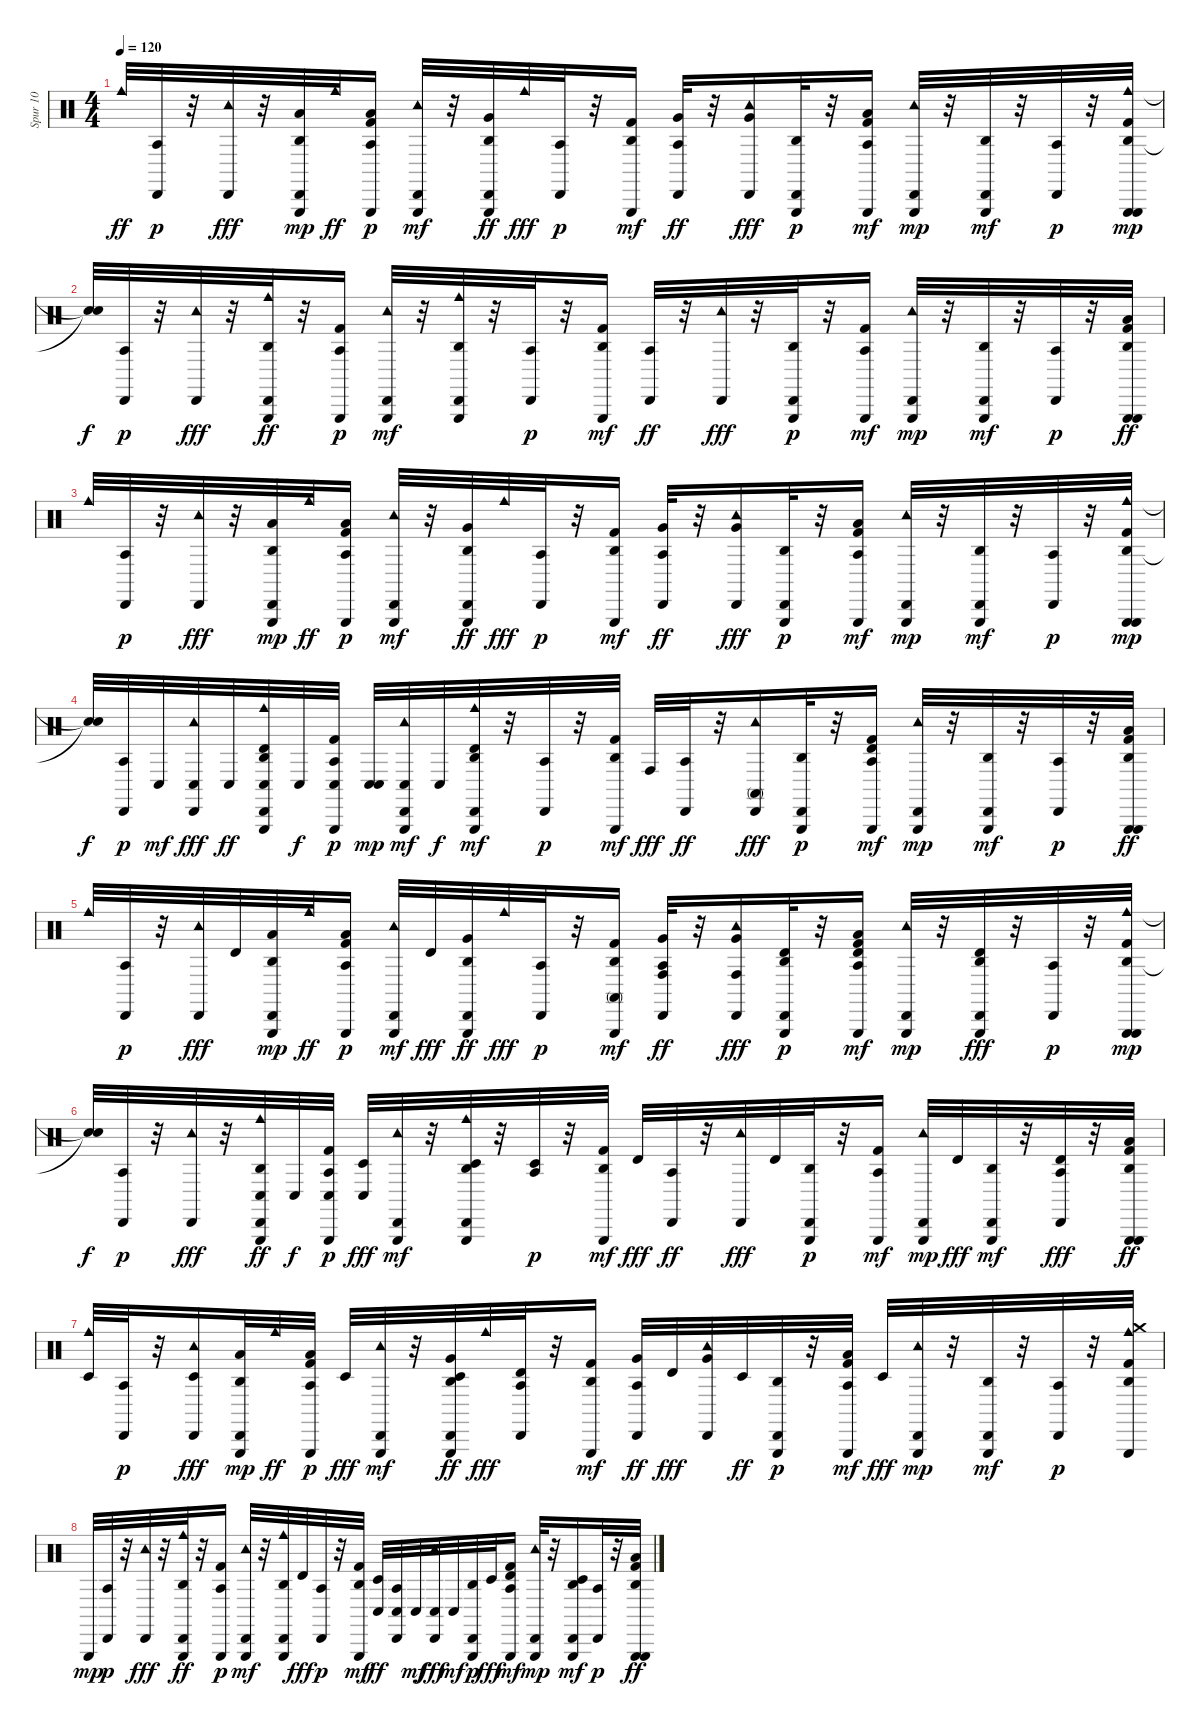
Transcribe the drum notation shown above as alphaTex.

\track ("Spur 10" "Spur 10") {instrument percussion}
\staff {score}
\articulation defaults
\ts (4 4)
\tempo 120
\clef neutral
\ks c "Cowbell medium (hit)".32{dy ff}
("Cabasa (hit)" "Agogo tow (hit)").32{dy p} r.32 ("Tambourine (hit)" "Cabasa (hit)").32{dy fff} r.32 ("Cabasa (hit)" "Triangle (hit)" "Low Tom (hit)" "Agogo high (hit)").32{dy mp} "Cowbell medium (hit)".32{dy ff} ("Agogo tow (hit)" "Kick (hit) 2" "Triangle (hit)" "Low Tom (hit)").16{dy p} ("Triangle (hit)" "Cabasa (hit)" "Tambourine (hit)").32{dy mf} r.32 ("Agogo high (hit)" "Cabasa (hit)" "Triangle (hit)" "Very Low Tom (hit)").32{dy ff} "Cowbell medium (hit)".32{dy fff} ("Agogo tow (hit)" "Cabasa (hit)").32{dy p} r.32 ("Agogo high (hit)" "Kick (hit) 2" "Triangle (hit)").16{dy mf} ("Agogo tow (hit)" "Cabasa (hit)" "Very Low Tom (hit)").32{dy ff} r.32 ("Tambourine (hit)" "Cabasa (hit)" "Very Low Tom (hit)").16{dy fff} ("Agogo high (hit)" "Cabasa (hit)" "Triangle (hit)").32{dy p} r.32 ("Agogo tow (hit)" "Kick (hit) 2" "Triangle (hit)" "Low Floor Tom (hit)").16{dy mf} ("Tambourine (hit)" "Cabasa (hit)" "Triangle (hit)").32{dy mp} r.32 ("Agogo high (hit)" "Cabasa (hit)" "Triangle (hit)").32{dy mf} r.32 ("Agogo tow (hit)" "Cabasa (hit)").32{dy p} r.32 ("Agogo high (hit)" "Cowbell medium (hit)" "Kick (hit) 2" "Triangle (hit)" "Triangle (hit)").32{dy mp} |
("Snare (hit)"{t} "Snare (hit)"{t}).32{dy f} ("Cabasa (hit)" "Agogo tow (hit)").32{dy p} r.32 ("Tambourine (hit)" "Cabasa (hit)").32{dy fff} r.32 ("Cabasa (hit)" "Triangle (hit)" "Agogo high (hit)" "Cowbell medium (hit)").32{dy ff} r.32 ("Agogo tow (hit)" "Kick (hit) 2" "Triangle (hit)").16{dy p} ("Triangle (hit)" "Cabasa (hit)" "Tambourine (hit)").32{dy mf} r.32 ("Agogo high (hit)" "Cowbell medium (hit)" "Cabasa (hit)" "Triangle (hit)").32 r.32 ("Agogo tow (hit)" "Cabasa (hit)").32{dy p} r.32 ("Agogo high (hit)" "Kick (hit) 2" "Triangle (hit)").16{dy mf} ("Agogo tow (hit)" "Cabasa (hit)").32{dy ff} r.32 ("Tambourine (hit)" "Cabasa (hit)").32{dy fff} r.32 ("Agogo high (hit)" "Cabasa (hit)" "Triangle (hit)").32{dy p} r.32 ("Agogo tow (hit)" "Kick (hit) 2" "Triangle (hit)").16{dy mf} ("Tambourine (hit)" "Cabasa (hit)" "Triangle (hit)").32{dy mp} r.32 ("Agogo high (hit)" "Cabasa (hit)" "Triangle (hit)").32{dy mf} r.32 ("Agogo tow (hit)" "Cabasa (hit)").32{dy p} r.32 ("Agogo high (hit)" "Kick (hit) 2" "Triangle (hit)" "Triangle (hit)" "Low Tom (hit)").32{dy ff} |
"Cowbell medium (hit)".32 ("Cabasa (hit)" "Agogo tow (hit)").32{dy p} r.32 ("Tambourine (hit)" "Cabasa (hit)").32{dy fff} r.32 ("Cabasa (hit)" "Triangle (hit)" "Low Tom (hit)" "Agogo high (hit)").32{dy mp} "Cowbell medium (hit)".32{dy ff} ("Agogo tow (hit)" "Kick (hit) 2" "Triangle (hit)" "Low Tom (hit)").16{dy p} ("Triangle (hit)" "Cabasa (hit)" "Tambourine (hit)").32{dy mf} r.32 ("Agogo high (hit)" "Cabasa (hit)" "Triangle (hit)" "Very Low Tom (hit)").32{dy ff} "Cowbell medium (hit)".32{dy fff} ("Agogo tow (hit)" "Cabasa (hit)").32{dy p} r.32 ("Agogo high (hit)" "Kick (hit) 2" "Triangle (hit)").16{dy mf} ("Agogo tow (hit)" "Cabasa (hit)" "Very Low Tom (hit)").32{dy ff} r.32 ("Tambourine (hit)" "Cabasa (hit)" "Very Low Tom (hit)").16{dy fff} ("Agogo high (hit)" "Cabasa (hit)" "Triangle (hit)").32{dy p} r.32 ("Agogo tow (hit)" "Kick (hit) 2" "Triangle (hit)" "Low Floor Tom (hit)").16{dy mf} ("Tambourine (hit)" "Cabasa (hit)" "Triangle (hit)").32{dy mp} r.32 ("Agogo high (hit)" "Cabasa (hit)" "Triangle (hit)").32{dy mf} r.32 ("Agogo tow (hit)" "Cabasa (hit)").32{dy p} r.32 ("Agogo high (hit)" "Cowbell medium (hit)" "Kick (hit) 2" "Triangle (hit)" "Triangle (hit)").32{dy mp} |
("Snare (hit)"{t} "Snare (hit)"{t}).32{dy f} ("Cabasa (hit)" "Agogo tow (hit)").32{dy p} "Conga low (hit)".32{dy mf} ("Conga low (hit)" "Tambourine (hit)" "Cabasa (hit)").32{dy fff} "Conga low (hit)".32{dy ff} ("Timbale high (hit)" "Cabasa (hit)" "Triangle (hit)" "Agogo high (hit)" "Conga low (hit)" "Cowbell medium (hit)").32 "Conga low (hit)".32{dy f} ("Conga low (hit)" "Agogo tow (hit)" "Kick (hit) 2" "Triangle (hit)").32{dy p} ("Conga low (hit)" "Conga low (hit)").32{dy mp} ("Conga low (hit)" "Triangle (hit)" "Cabasa (hit)" "Tambourine (hit)").32{dy mf} "Conga low (hit)".32{dy f} ("Timbale high (hit)" "Agogo high (hit)" "Cowbell medium (hit)" "Cabasa (hit)" "Triangle (hit)").32{dy mf} r.32 ("Agogo tow (hit)" "Cabasa (hit)").32{dy p} r.32 ("Agogo high (hit)" "Kick (hit) 2" "Triangle (hit)").32{dy mf} "Conga high (hit)".32{dy fff} ("Agogo tow (hit)" "Cabasa (hit)").32{dy ff} r.32 ("Conga high (mute)" "Tambourine (hit)" "Cabasa (hit)").16{dy fff} ("Agogo high (hit)" "Cabasa (hit)" "Triangle (hit)").32{dy p} r.32 ("Timbale high (hit)" "Agogo tow (hit)" "Kick (hit) 2" "Triangle (hit)").16{dy mf} ("Tambourine (hit)" "Cabasa (hit)" "Triangle (hit)").32{dy mp} r.32 ("Agogo high (hit)" "Cabasa (hit)" "Triangle (hit)").32{dy mf} r.32 ("Agogo tow (hit)" "Cabasa (hit)").32{dy p} r.32 ("Agogo high (hit)" "Kick (hit) 2" "Triangle (hit)" "Triangle (hit)" "Low Tom (hit)").32{dy ff} |
"Cowbell medium (hit)".32 ("Cabasa (hit)" "Agogo tow (hit)").32{dy p} r.32 ("Tambourine (hit)" "Cabasa (hit)").32{dy fff} "Timbale high (hit)".32 ("Cabasa (hit)" "Triangle (hit)" "Low Tom (hit)" "Agogo high (hit)").32{dy mp} "Cowbell medium (hit)".32{dy ff} ("Agogo tow (hit)" "Kick (hit) 2" "Triangle (hit)" "Low Tom (hit)").16{dy p} ("Triangle (hit)" "Cabasa (hit)" "Tambourine (hit)").32{dy mf} "Timbale high (hit)".32{dy fff} ("Agogo high (hit)" "Cabasa (hit)" "Triangle (hit)" "Very Low Tom (hit)").32{dy ff} "Cowbell medium (hit)".32{dy fff} ("Agogo tow (hit)" "Cabasa (hit)").32{dy p} r.32 ("Agogo high (hit)" "Conga high (mute)" "Kick (hit) 2" "Triangle (hit)").16{dy mf} ("Agogo tow (hit)" "Conga high (hit)" "Cabasa (hit)" "Very Low Tom (hit)").32{dy ff} r.32 ("Conga high (hit)" "Tambourine (hit)" "Cabasa (hit)" "Very Low Tom (hit)").16{dy fff} ("Timbale high (hit)" "Agogo high (hit)" "Cabasa (hit)" "Triangle (hit)").32{dy p} r.32 ("Timbale high (hit)" "Agogo tow (hit)" "Kick (hit) 2" "Triangle (hit)" "Low Floor Tom (hit)").16{dy mf} ("Tambourine (hit)" "Cabasa (hit)" "Triangle (hit)").32{dy mp} r.32 ("Agogo high (hit)" "Cabasa (hit)" "Triangle (hit)" "Timbale high (hit)").32{dy fff} r.32 ("Agogo tow (hit)" "Cabasa (hit)").32{dy p} r.32 ("Agogo high (hit)" "Cowbell medium (hit)" "Kick (hit) 2" "Triangle (hit)" "Triangle (hit)").32{dy mp} |
("Snare (hit)"{t} "Snare (hit)"{t}).32{dy f} ("Cabasa (hit)" "Agogo tow (hit)").32{dy p} r.32 ("Tambourine (hit)" "Cabasa (hit)").32{dy fff} r.32 ("Cabasa (hit)" "Triangle (hit)" "Agogo high (hit)" "Conga low (hit)" "Cowbell medium (hit)").32{dy ff} "Conga low (hit)".32{dy f} ("Conga low (hit)" "Agogo tow (hit)" "Kick (hit) 2" "Triangle (hit)").32{dy p} ("Conga low (hit)" "Timbale low (hit)").32{dy fff} ("Triangle (hit)" "Cabasa (hit)" "Tambourine (hit)").32{dy mf} r.32 ("Timbale low (hit)" "Agogo high (hit)" "Cowbell medium (hit)" "Cabasa (hit)" "Triangle (hit)").32 r.32 ("Timbale low (hit)" "Agogo tow (hit)").32{dy p} r.32 ("Agogo high (hit)" "Kick (hit) 2" "Triangle (hit)").32{dy mf} "Timbale high (hit)".32{dy fff} ("Agogo tow (hit)" "Cabasa (hit)").32{dy ff} r.32 ("Tambourine (hit)" "Cabasa (hit)").32{dy fff} "Timbale high (hit)".32 ("Agogo high (hit)" "Cabasa (hit)" "Triangle (hit)").32{dy p} r.32 ("Agogo tow (hit)" "Kick (hit) 2" "Triangle (hit)").16{dy mf} ("Tambourine (hit)" "Cabasa (hit)" "Triangle (hit)").32{dy mp} "Timbale high (hit)".32{dy fff} ("Agogo high (hit)" "Cabasa (hit)" "Triangle (hit)").32{dy mf} r.32 ("Agogo tow (hit)" "Timbale high (hit)" "Cabasa (hit)").32{dy fff} r.32 ("Agogo high (hit)" "Kick (hit) 2" "Triangle (hit)" "Triangle (hit)" "Low Tom (hit)").32{dy ff} |
("Timbale low (hit)" "Cowbell medium (hit)").32 ("Cabasa (hit)" "Agogo tow (hit)").32{dy p} r.32 ("Tambourine (hit)" "Timbale low (hit)" "Cabasa (hit)").16{dy fff} ("Cabasa (hit)" "Triangle (hit)" "Low Tom (hit)" "Agogo high (hit)").32{dy mp} "Cowbell medium (hit)".32{dy ff} ("Agogo tow (hit)" "Kick (hit) 2" "Triangle (hit)" "Low Tom (hit)").32{dy p} "Timbale low (hit)".32{dy fff} ("Triangle (hit)" "Cabasa (hit)" "Tambourine (hit)").32{dy mf} r.32 ("Timbale low (hit)" "Agogo high (hit)" "Cabasa (hit)" "Triangle (hit)" "Very Low Tom (hit)").32{dy ff} "Cowbell medium (hit)".32{dy fff} ("Agogo tow (hit)" "Cabasa (hit)" "Timbale high (hit)").32 r.32 ("Agogo high (hit)" "Kick (hit) 2" "Triangle (hit)").16{dy mf} ("Agogo tow (hit)" "Cabasa (hit)" "Very Low Tom (hit)").32{dy ff} "Timbale high (hit)".32{dy fff} ("Tambourine (hit)" "Cabasa (hit)" "Very Low Tom (hit)").32 "Timbale low (hit)".32{dy ff} ("Agogo high (hit)" "Cabasa (hit)" "Triangle (hit)").32{dy p} r.32 ("Agogo tow (hit)" "Kick (hit) 2" "Triangle (hit)" "Low Floor Tom (hit)").32{dy mf} "Timbale low (hit)".32{dy fff} ("Tambourine (hit)" "Cabasa (hit)" "Triangle (hit)").32{dy mp} r.32 ("Agogo high (hit)" "Cabasa (hit)" "Triangle (hit)").32{dy mf} r.32 ("Agogo tow (hit)" "Cabasa (hit)").32{dy p} r.32 ("Agogo high (hit)" "Crash medium (hit)" "Cowbell medium (hit)" "Kick (hit) 2" "Triangle (hit)").32 |
"Triangle (hit)".32{dy mp} ("Cabasa (hit)" "Agogo tow (hit)").32{dy p} r.32 ("Tambourine (hit)" "Cabasa (hit)").32{dy fff} r.32 ("Cabasa (hit)" "Triangle (hit)" "Agogo high (hit)" "Cowbell medium (hit)").32{dy ff} r.32 ("Agogo tow (hit)" "Kick (hit) 2" "Triangle (hit)").16{dy p} ("Triangle (hit)" "Cabasa (hit)" "Tambourine (hit)").32{dy mf} r.32 ("Agogo high (hit)" "Cowbell medium (hit)" "Cabasa (hit)" "Triangle (hit)").32 "Timbale high (hit)".32{dy fff} ("Agogo tow (hit)" "Cabasa (hit)").32{dy p} r.32 ("Agogo high (hit)" "Kick (hit) 2" "Triangle (hit)").32{dy mf} ("Timbale low (hit)" "Conga low (hit)").32{dy ff} ("Conga low (hit)" "Agogo tow (hit)" "Cabasa (hit)").32 "Conga low (hit)".32{dy mf} ("Conga low (hit)" "Tambourine (hit)" "Cabasa (hit)").32{dy fff} "Conga low (hit)".32{dy mf} ("Agogo high (hit)" "Cabasa (hit)" "Triangle (hit)").32{dy p} "Timbale low (hit)".32{dy fff} ("Timbale high (hit)" "Agogo tow (hit)" "Kick (hit) 2" "Triangle (hit)").16{dy mf} ("Tambourine (hit)" "Cabasa (hit)" "Triangle (hit)").32{dy mp} r.32 ("Agogo high (hit)" "Timbale low (hit)" "Cabasa (hit)" "Triangle (hit)").16{dy mf} ("Agogo tow (hit)" "Cabasa (hit)").32{dy p} r.32 ("Agogo high (hit)" "Kick (hit) 2" "Triangle (hit)" "Triangle (hit)" "Low Tom (hit)").32{dy ff}
